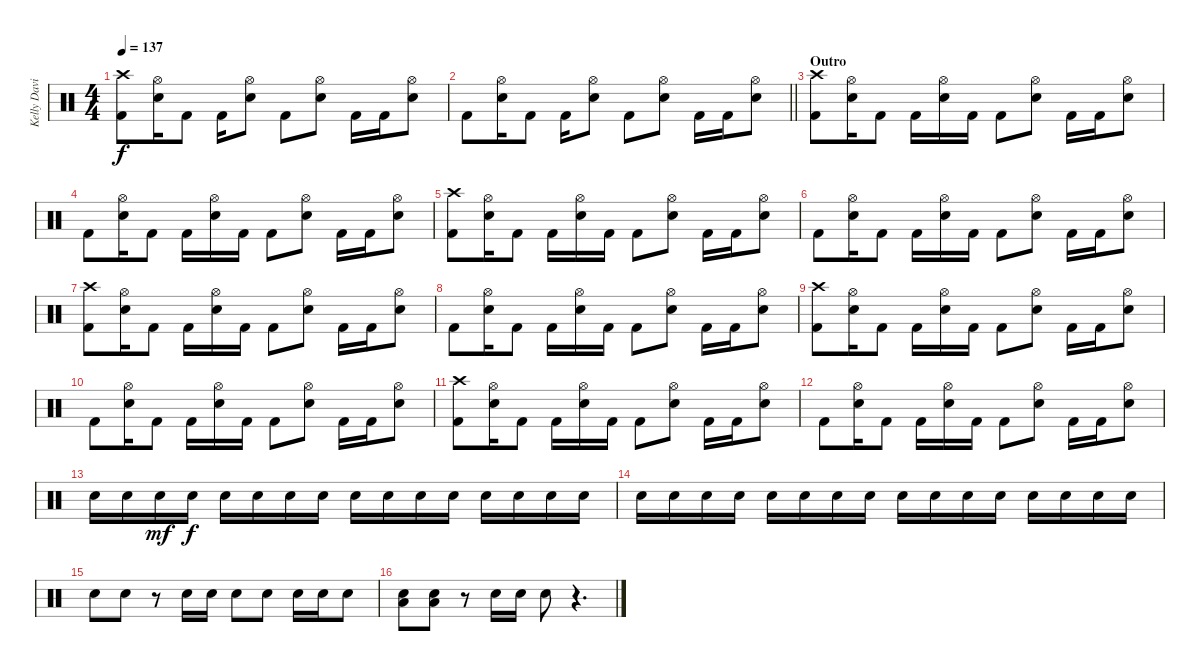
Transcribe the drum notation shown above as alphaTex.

\track ("Kelly David Smith" "Kelly Davi") {instrument percussion}
\staff {score}
\articulation defaults
\ts (4 4)
\tempo 137
\clef neutral
\ks c
("Crash high (hit)" "Kick (hit) 2").8{dy f} ("Hi-Hat (open)" "Snare (hit) 2").16 "Kick (hit) 2".8 "Kick (hit) 2".16 ("Hi-Hat (open)" "Snare (hit) 2").8 "Kick (hit) 2".8 ("Hi-Hat (open)" "Snare (hit) 2").8 "Kick (hit) 2".16 "Kick (hit) 2".16 ("Hi-Hat (open)" "Snare (hit) 2").8 |
\barLineRight lightlight "Kick (hit) 2".8
("Hi-Hat (open)" "Snare (hit) 2").16 "Kick (hit) 2".8 "Kick (hit) 2".16 ("Hi-Hat (open)" "Snare (hit) 2").8 "Kick (hit) 2".8 ("Hi-Hat (open)" "Snare (hit) 2").8 "Kick (hit) 2".16 "Kick (hit) 2".16 ("Hi-Hat (open)" "Snare (hit) 2").8 |
\section ("" "Outro")
("Crash high (hit)" "Kick (hit) 2").8 ("Hi-Hat (open)" "Snare (hit) 2").16 "Kick (hit) 2".8 "Kick (hit) 2".16 ("Hi-Hat (open)" "Snare (hit) 2").16 "Kick (hit) 2".16 "Kick (hit) 2".8 ("Hi-Hat (open)" "Snare (hit) 2").8 "Kick (hit) 2".16 "Kick (hit) 2".16 ("Hi-Hat (open)" "Snare (hit) 2").8 |
"Kick (hit) 2".8 ("Hi-Hat (open)" "Snare (hit) 2").16 "Kick (hit) 2".8 "Kick (hit) 2".16 ("Hi-Hat (open)" "Snare (hit) 2").16 "Kick (hit) 2".16 "Kick (hit) 2".8 ("Hi-Hat (open)" "Snare (hit) 2").8 "Kick (hit) 2".16 "Kick (hit) 2".16 ("Hi-Hat (open)" "Snare (hit) 2").8 |
("Crash high (hit)" "Kick (hit) 2").8 ("Hi-Hat (open)" "Snare (hit) 2").16 "Kick (hit) 2".8 "Kick (hit) 2".16 ("Hi-Hat (open)" "Snare (hit) 2").16 "Kick (hit) 2".16 "Kick (hit) 2".8 ("Hi-Hat (open)" "Snare (hit) 2").8 "Kick (hit) 2".16 "Kick (hit) 2".16 ("Hi-Hat (open)" "Snare (hit) 2").8 |
"Kick (hit) 2".8 ("Hi-Hat (open)" "Snare (hit) 2").16 "Kick (hit) 2".8 "Kick (hit) 2".16 ("Hi-Hat (open)" "Snare (hit) 2").16 "Kick (hit) 2".16 "Kick (hit) 2".8 ("Hi-Hat (open)" "Snare (hit) 2").8 "Kick (hit) 2".16 "Kick (hit) 2".16 ("Hi-Hat (open)" "Snare (hit) 2").8 |
("Crash high (hit)" "Kick (hit) 2").8 ("Hi-Hat (open)" "Snare (hit) 2").16 "Kick (hit) 2".8 "Kick (hit) 2".16 ("Hi-Hat (open)" "Snare (hit) 2").16 "Kick (hit) 2".16 "Kick (hit) 2".8 ("Hi-Hat (open)" "Snare (hit) 2").8 "Kick (hit) 2".16 "Kick (hit) 2".16 ("Hi-Hat (open)" "Snare (hit) 2").8 |
"Kick (hit) 2".8 ("Hi-Hat (open)" "Snare (hit) 2").16 "Kick (hit) 2".8 "Kick (hit) 2".16 ("Hi-Hat (open)" "Snare (hit) 2").16 "Kick (hit) 2".16 "Kick (hit) 2".8 ("Hi-Hat (open)" "Snare (hit) 2").8 "Kick (hit) 2".16 "Kick (hit) 2".16 ("Hi-Hat (open)" "Snare (hit) 2").8 |
("Crash high (hit)" "Kick (hit) 2").8 ("Hi-Hat (open)" "Snare (hit) 2").16 "Kick (hit) 2".8 "Kick (hit) 2".16 ("Hi-Hat (open)" "Snare (hit) 2").16 "Kick (hit) 2".16 "Kick (hit) 2".8 ("Hi-Hat (open)" "Snare (hit) 2").8 "Kick (hit) 2".16 "Kick (hit) 2".16 ("Hi-Hat (open)" "Snare (hit) 2").8 |
"Kick (hit) 2".8 ("Hi-Hat (open)" "Snare (hit) 2").16 "Kick (hit) 2".8 "Kick (hit) 2".16 ("Hi-Hat (open)" "Snare (hit) 2").16 "Kick (hit) 2".16 "Kick (hit) 2".8 ("Hi-Hat (open)" "Snare (hit) 2").8 "Kick (hit) 2".16 "Kick (hit) 2".16 ("Hi-Hat (open)" "Snare (hit) 2").8 |
("Crash high (hit)" "Kick (hit) 2").8 ("Hi-Hat (open)" "Snare (hit) 2").16 "Kick (hit) 2".8 "Kick (hit) 2".16 ("Hi-Hat (open)" "Snare (hit) 2").16 "Kick (hit) 2".16 "Kick (hit) 2".8 ("Hi-Hat (open)" "Snare (hit) 2").8 "Kick (hit) 2".16 "Kick (hit) 2".16 ("Hi-Hat (open)" "Snare (hit) 2").8 |
"Kick (hit) 2".8 ("Hi-Hat (open)" "Snare (hit) 2").16 "Kick (hit) 2".8 "Kick (hit) 2".16 ("Hi-Hat (open)" "Snare (hit) 2").16 "Kick (hit) 2".16 "Kick (hit) 2".8 ("Hi-Hat (open)" "Snare (hit) 2").8 "Kick (hit) 2".16 "Kick (hit) 2".16 ("Hi-Hat (open)" "Snare (hit) 2").8 |
"Snare (hit) 2".16 "Snare (hit) 2".16 "Snare (hit) 2".16{dy mf} "Snare (hit) 2".16{dy f} "Snare (hit) 2".16 "Snare (hit) 2".16 "Snare (hit) 2".16 "Snare (hit) 2".16 "Snare (hit) 2".16 "Snare (hit) 2".16 "Snare (hit) 2".16 "Snare (hit) 2".16 "Snare (hit) 2".16 "Snare (hit) 2".16 "Snare (hit) 2".16 "Snare (hit) 2".16 |
"Snare (hit) 2".16 "Snare (hit) 2".16 "Snare (hit) 2".16 "Snare (hit) 2".16 "Snare (hit) 2".16 "Snare (hit) 2".16 "Snare (hit) 2".16 "Snare (hit) 2".16 "Snare (hit) 2".16 "Snare (hit) 2".16 "Snare (hit) 2".16 "Snare (hit) 2".16 "Snare (hit) 2".16 "Snare (hit) 2".16 "Snare (hit) 2".16 "Snare (hit) 2".16 |
"Snare (hit) 2".8 "Snare (hit) 2".8 r.8 "Snare (hit) 2".16 "Snare (hit) 2".16 "Snare (hit) 2".8 "Snare (hit) 2".8 "Snare (hit) 2".16 "Snare (hit) 2".16 "Snare (hit) 2".8 |
("Low Floor Tom (hit)" "Snare (hit) 2").8 ("Low Floor Tom (hit)" "Snare (hit) 2").8 r.8 "Snare (hit) 2".16 "Snare (hit) 2".16 "Snare (hit) 2".8 r.4{d}
